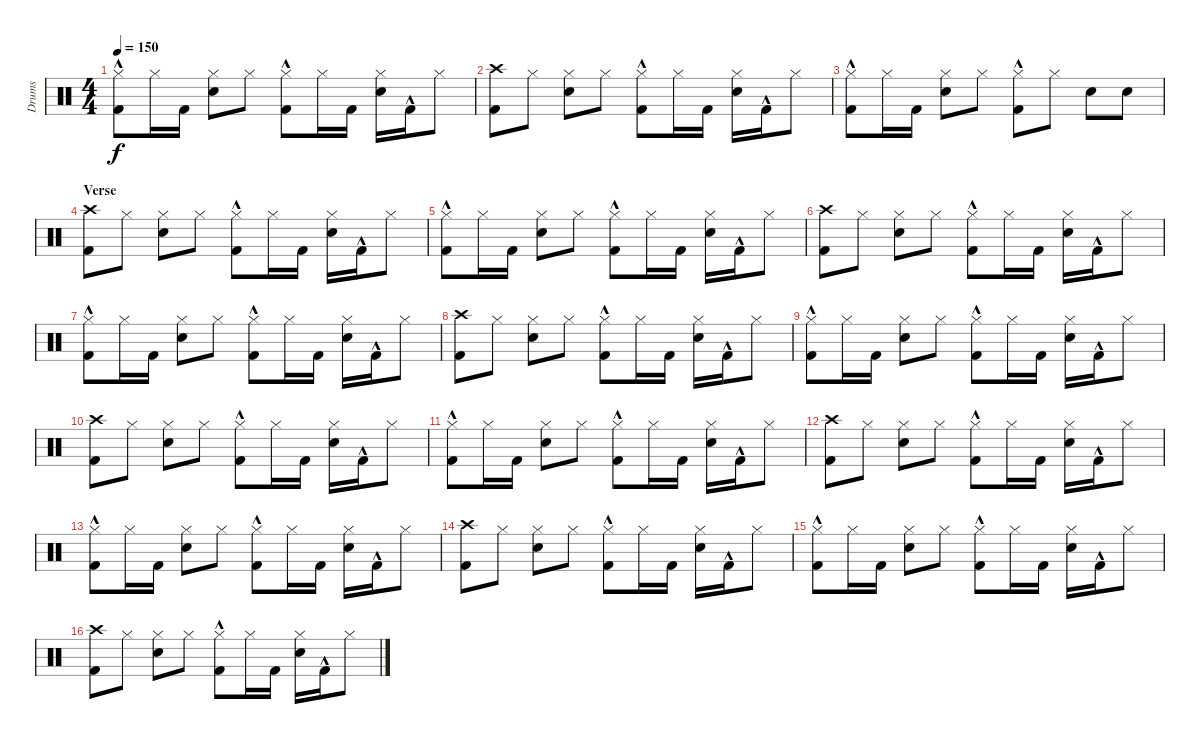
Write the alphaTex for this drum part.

\track ("Drums" "Drums") {instrument percussion}
\staff {score}
\articulation defaults
\ts (4 4)
\tempo 150
\clef neutral
\ks c
("Hi-Hat (closed)" "Kick (hit) 2"{hac}).8{dy f} "Hi-Hat (closed)".16 "Kick (hit) 2".16 ("Hi-Hat (closed)" "Electric Snare (hit)").8 "Hi-Hat (closed)".8 ("Hi-Hat (closed)" "Kick (hit) 2"{hac}).8 "Hi-Hat (closed)".16 "Kick (hit) 2".16 ("Hi-Hat (closed)" "Electric Snare (hit)").16 "Kick (hit) 2"{hac}.16 "Hi-Hat (closed)".8 |
("Crash high (hit)" "Kick (hit) 2").8 "Hi-Hat (closed)".8 ("Hi-Hat (closed)" "Electric Snare (hit)").8 "Hi-Hat (closed)".8 ("Hi-Hat (closed)" "Kick (hit) 2"{hac}).8 "Hi-Hat (closed)".16 "Kick (hit) 2".16 ("Hi-Hat (closed)" "Electric Snare (hit)").16 "Kick (hit) 2"{hac}.16 "Hi-Hat (closed)".8 |
("Hi-Hat (closed)" "Kick (hit) 2"{hac}).8 "Hi-Hat (closed)".16 "Kick (hit) 2".16 ("Hi-Hat (closed)" "Electric Snare (hit)").8 "Hi-Hat (closed)".8 ("Hi-Hat (closed)" "Kick (hit) 2"{hac}).8 "Hi-Hat (closed)".8 "Electric Snare (hit)".8 "Electric Snare (hit)".8 |
\section ("" "Verse")
("Crash high (hit)" "Kick (hit) 2").8 "Hi-Hat (closed)".8 ("Hi-Hat (closed)" "Electric Snare (hit)").8 "Hi-Hat (closed)".8 ("Hi-Hat (closed)" "Kick (hit) 2"{hac}).8 "Hi-Hat (closed)".16 "Kick (hit) 2".16 ("Hi-Hat (closed)" "Electric Snare (hit)").16 "Kick (hit) 2"{hac}.16 "Hi-Hat (closed)".8 |
("Hi-Hat (closed)" "Kick (hit) 2"{hac}).8 "Hi-Hat (closed)".16 "Kick (hit) 2".16 ("Hi-Hat (closed)" "Electric Snare (hit)").8 "Hi-Hat (closed)".8 ("Hi-Hat (closed)" "Kick (hit) 2"{hac}).8 "Hi-Hat (closed)".16 "Kick (hit) 2".16 ("Hi-Hat (closed)" "Electric Snare (hit)").16 "Kick (hit) 2"{hac}.16 "Hi-Hat (closed)".8 |
("Crash high (hit)" "Kick (hit) 2").8 "Hi-Hat (closed)".8 ("Hi-Hat (closed)" "Electric Snare (hit)").8 "Hi-Hat (closed)".8 ("Hi-Hat (closed)" "Kick (hit) 2"{hac}).8 "Hi-Hat (closed)".16 "Kick (hit) 2".16 ("Hi-Hat (closed)" "Electric Snare (hit)").16 "Kick (hit) 2"{hac}.16 "Hi-Hat (closed)".8 |
("Hi-Hat (closed)" "Kick (hit) 2"{hac}).8 "Hi-Hat (closed)".16 "Kick (hit) 2".16 ("Hi-Hat (closed)" "Electric Snare (hit)").8 "Hi-Hat (closed)".8 ("Hi-Hat (closed)" "Kick (hit) 2"{hac}).8 "Hi-Hat (closed)".16 "Kick (hit) 2".16 ("Hi-Hat (closed)" "Electric Snare (hit)").16 "Kick (hit) 2"{hac}.16 "Hi-Hat (closed)".8 |
("Crash high (hit)" "Kick (hit) 2").8 "Hi-Hat (closed)".8 ("Hi-Hat (closed)" "Electric Snare (hit)").8 "Hi-Hat (closed)".8 ("Hi-Hat (closed)" "Kick (hit) 2"{hac}).8 "Hi-Hat (closed)".16 "Kick (hit) 2".16 ("Hi-Hat (closed)" "Electric Snare (hit)").16 "Kick (hit) 2"{hac}.16 "Hi-Hat (closed)".8 |
("Hi-Hat (closed)" "Kick (hit) 2"{hac}).8 "Hi-Hat (closed)".16 "Kick (hit) 2".16 ("Hi-Hat (closed)" "Electric Snare (hit)").8 "Hi-Hat (closed)".8 ("Hi-Hat (closed)" "Kick (hit) 2"{hac}).8 "Hi-Hat (closed)".16 "Kick (hit) 2".16 ("Hi-Hat (closed)" "Electric Snare (hit)").16 "Kick (hit) 2"{hac}.16 "Hi-Hat (closed)".8 |
("Crash high (hit)" "Kick (hit) 2").8 "Hi-Hat (closed)".8 ("Hi-Hat (closed)" "Electric Snare (hit)").8 "Hi-Hat (closed)".8 ("Hi-Hat (closed)" "Kick (hit) 2"{hac}).8 "Hi-Hat (closed)".16 "Kick (hit) 2".16 ("Hi-Hat (closed)" "Electric Snare (hit)").16 "Kick (hit) 2"{hac}.16 "Hi-Hat (closed)".8 |
("Hi-Hat (closed)" "Kick (hit) 2"{hac}).8 "Hi-Hat (closed)".16 "Kick (hit) 2".16 ("Hi-Hat (closed)" "Electric Snare (hit)").8 "Hi-Hat (closed)".8 ("Hi-Hat (closed)" "Kick (hit) 2"{hac}).8 "Hi-Hat (closed)".16 "Kick (hit) 2".16 ("Hi-Hat (closed)" "Electric Snare (hit)").16 "Kick (hit) 2"{hac}.16 "Hi-Hat (closed)".8 |
("Crash high (hit)" "Kick (hit) 2").8 "Hi-Hat (closed)".8 ("Hi-Hat (closed)" "Electric Snare (hit)").8 "Hi-Hat (closed)".8 ("Hi-Hat (closed)" "Kick (hit) 2"{hac}).8 "Hi-Hat (closed)".16 "Kick (hit) 2".16 ("Hi-Hat (closed)" "Electric Snare (hit)").16 "Kick (hit) 2"{hac}.16 "Hi-Hat (closed)".8 |
("Hi-Hat (closed)" "Kick (hit) 2"{hac}).8 "Hi-Hat (closed)".16 "Kick (hit) 2".16 ("Hi-Hat (closed)" "Electric Snare (hit)").8 "Hi-Hat (closed)".8 ("Hi-Hat (closed)" "Kick (hit) 2"{hac}).8 "Hi-Hat (closed)".16 "Kick (hit) 2".16 ("Hi-Hat (closed)" "Electric Snare (hit)").16 "Kick (hit) 2"{hac}.16 "Hi-Hat (closed)".8 |
("Crash high (hit)" "Kick (hit) 2").8 "Hi-Hat (closed)".8 ("Hi-Hat (closed)" "Electric Snare (hit)").8 "Hi-Hat (closed)".8 ("Hi-Hat (closed)" "Kick (hit) 2"{hac}).8 "Hi-Hat (closed)".16 "Kick (hit) 2".16 ("Hi-Hat (closed)" "Electric Snare (hit)").16 "Kick (hit) 2"{hac}.16 "Hi-Hat (closed)".8 |
("Hi-Hat (closed)" "Kick (hit) 2"{hac}).8 "Hi-Hat (closed)".16 "Kick (hit) 2".16 ("Hi-Hat (closed)" "Electric Snare (hit)").8 "Hi-Hat (closed)".8 ("Hi-Hat (closed)" "Kick (hit) 2"{hac}).8 "Hi-Hat (closed)".16 "Kick (hit) 2".16 ("Hi-Hat (closed)" "Electric Snare (hit)").16 "Kick (hit) 2"{hac}.16 "Hi-Hat (closed)".8 |
("Crash high (hit)" "Kick (hit) 2").8 "Hi-Hat (closed)".8 ("Hi-Hat (closed)" "Electric Snare (hit)").8 "Hi-Hat (closed)".8 ("Hi-Hat (closed)" "Kick (hit) 2"{hac}).8 "Hi-Hat (closed)".16 "Kick (hit) 2".16 ("Hi-Hat (closed)" "Electric Snare (hit)").16 "Kick (hit) 2"{hac}.16 "Hi-Hat (closed)".8
